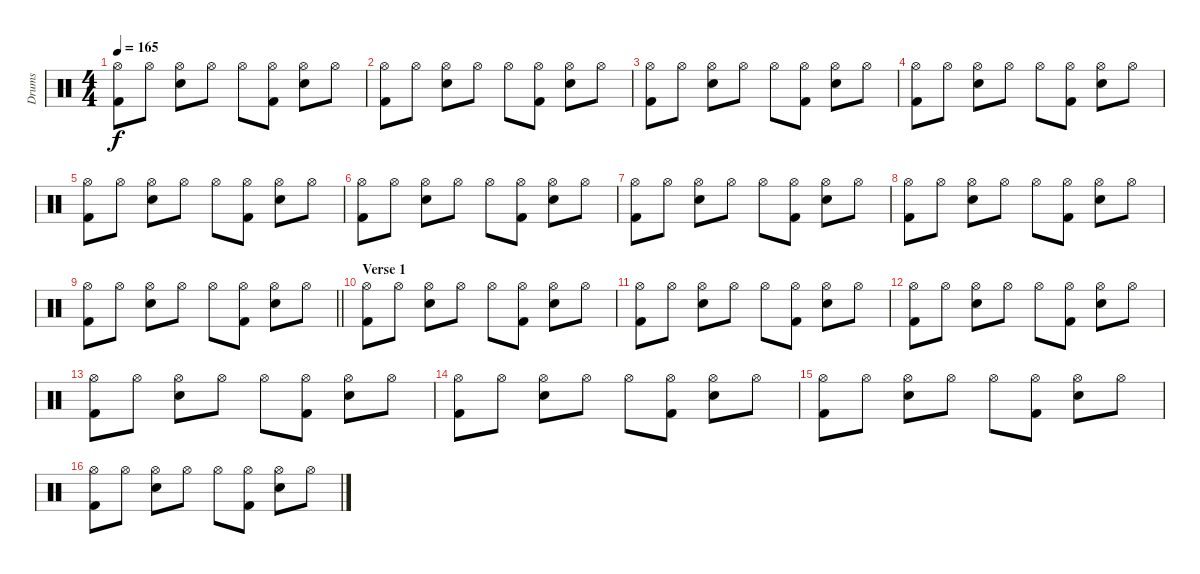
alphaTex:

\track ("Drums" "Drums") {instrument percussion}
\staff {score}
\articulation defaults
\ts (4 4)
\tempo 165
\clef neutral
\ks c
("Kick (hit) 2" "Hi-Hat (open)").8{dy f} "Hi-Hat (open)".8 ("Snare (hit) 2" "Hi-Hat (open)").8 "Hi-Hat (open)".8 "Hi-Hat (open)".8 ("Kick (hit) 2" "Hi-Hat (open)").8 ("Snare (hit) 2" "Hi-Hat (open)").8 "Hi-Hat (open)".8 |
("Kick (hit) 2" "Hi-Hat (open)").8 "Hi-Hat (open)".8 ("Hi-Hat (open)" "Snare (hit) 2").8 "Hi-Hat (open)".8 "Hi-Hat (open)".8 ("Kick (hit) 2" "Hi-Hat (open)").8 ("Hi-Hat (open)" "Snare (hit) 2").8 "Hi-Hat (open)".8 |
("Kick (hit) 2" "Hi-Hat (open)").8 "Hi-Hat (open)".8 ("Snare (hit) 2" "Hi-Hat (open)").8 "Hi-Hat (open)".8 "Hi-Hat (open)".8 ("Kick (hit) 2" "Hi-Hat (open)").8 ("Snare (hit) 2" "Hi-Hat (open)").8 "Hi-Hat (open)".8 |
("Kick (hit) 2" "Hi-Hat (open)").8 "Hi-Hat (open)".8 ("Snare (hit) 2" "Hi-Hat (open)").8 "Hi-Hat (open)".8 "Hi-Hat (open)".8 ("Kick (hit) 2" "Hi-Hat (open)").8 ("Snare (hit) 2" "Hi-Hat (open)").8 "Hi-Hat (open)".8 |
("Kick (hit) 2" "Hi-Hat (open)").8 "Hi-Hat (open)".8 ("Snare (hit) 2" "Hi-Hat (open)").8 "Hi-Hat (open)".8 "Hi-Hat (open)".8 ("Kick (hit) 2" "Hi-Hat (open)").8 ("Snare (hit) 2" "Hi-Hat (open)").8 "Hi-Hat (open)".8 |
("Kick (hit) 2" "Hi-Hat (open)").8 "Hi-Hat (open)".8 ("Snare (hit) 2" "Hi-Hat (open)").8 "Hi-Hat (open)".8 "Hi-Hat (open)".8 ("Kick (hit) 2" "Hi-Hat (open)").8 ("Snare (hit) 2" "Hi-Hat (open)").8 "Hi-Hat (open)".8 |
("Kick (hit) 2" "Hi-Hat (open)").8 "Hi-Hat (open)".8 ("Snare (hit) 2" "Hi-Hat (open)").8 "Hi-Hat (open)".8 "Hi-Hat (open)".8 ("Kick (hit) 2" "Hi-Hat (open)").8 ("Snare (hit) 2" "Hi-Hat (open)").8 "Hi-Hat (open)".8 |
("Kick (hit) 2" "Hi-Hat (open)").8 "Hi-Hat (open)".8 ("Snare (hit) 2" "Hi-Hat (open)").8 "Hi-Hat (open)".8 "Hi-Hat (open)".8 ("Kick (hit) 2" "Hi-Hat (open)").8 ("Snare (hit) 2" "Hi-Hat (open)").8 "Hi-Hat (open)".8 |
\barLineRight lightlight
("Kick (hit) 2" "Hi-Hat (open)").8 "Hi-Hat (open)".8 ("Snare (hit) 2" "Hi-Hat (open)").8 "Hi-Hat (open)".8 "Hi-Hat (open)".8 ("Kick (hit) 2" "Hi-Hat (open)").8 ("Snare (hit) 2" "Hi-Hat (open)").8 "Hi-Hat (open)".8 |
\section ("" "Verse 1")
("Kick (hit) 2" "Hi-Hat (open)").8 "Hi-Hat (open)".8 ("Snare (hit) 2" "Hi-Hat (open)").8 "Hi-Hat (open)".8 "Hi-Hat (open)".8 ("Kick (hit) 2" "Hi-Hat (open)").8 ("Snare (hit) 2" "Hi-Hat (open)").8 "Hi-Hat (open)".8 |
("Kick (hit) 2" "Hi-Hat (open)").8 "Hi-Hat (open)".8 ("Snare (hit) 2" "Hi-Hat (open)").8 "Hi-Hat (open)".8 "Hi-Hat (open)".8 ("Kick (hit) 2" "Hi-Hat (open)").8 ("Snare (hit) 2" "Hi-Hat (open)").8 "Hi-Hat (open)".8 |
("Kick (hit) 2" "Hi-Hat (open)").8 "Hi-Hat (open)".8 ("Snare (hit) 2" "Hi-Hat (open)").8 "Hi-Hat (open)".8 "Hi-Hat (open)".8 ("Kick (hit) 2" "Hi-Hat (open)").8 ("Snare (hit) 2" "Hi-Hat (open)").8 "Hi-Hat (open)".8 |
("Kick (hit) 2" "Hi-Hat (open)").8 "Hi-Hat (open)".8 ("Snare (hit) 2" "Hi-Hat (open)").8 "Hi-Hat (open)".8 "Hi-Hat (open)".8 ("Kick (hit) 2" "Hi-Hat (open)").8 ("Snare (hit) 2" "Hi-Hat (open)").8 "Hi-Hat (open)".8 |
("Kick (hit) 2" "Hi-Hat (open)").8 "Hi-Hat (open)".8 ("Snare (hit) 2" "Hi-Hat (open)").8 "Hi-Hat (open)".8 "Hi-Hat (open)".8 ("Kick (hit) 2" "Hi-Hat (open)").8 ("Snare (hit) 2" "Hi-Hat (open)").8 "Hi-Hat (open)".8 |
("Kick (hit) 2" "Hi-Hat (open)").8 "Hi-Hat (open)".8 ("Snare (hit) 2" "Hi-Hat (open)").8 "Hi-Hat (open)".8 "Hi-Hat (open)".8 ("Kick (hit) 2" "Hi-Hat (open)").8 ("Snare (hit) 2" "Hi-Hat (open)").8 "Hi-Hat (open)".8 |
("Kick (hit) 2" "Hi-Hat (open)").8 "Hi-Hat (open)".8 ("Snare (hit) 2" "Hi-Hat (open)").8 "Hi-Hat (open)".8 "Hi-Hat (open)".8 ("Kick (hit) 2" "Hi-Hat (open)").8 ("Snare (hit) 2" "Hi-Hat (open)").8 "Hi-Hat (open)".8
